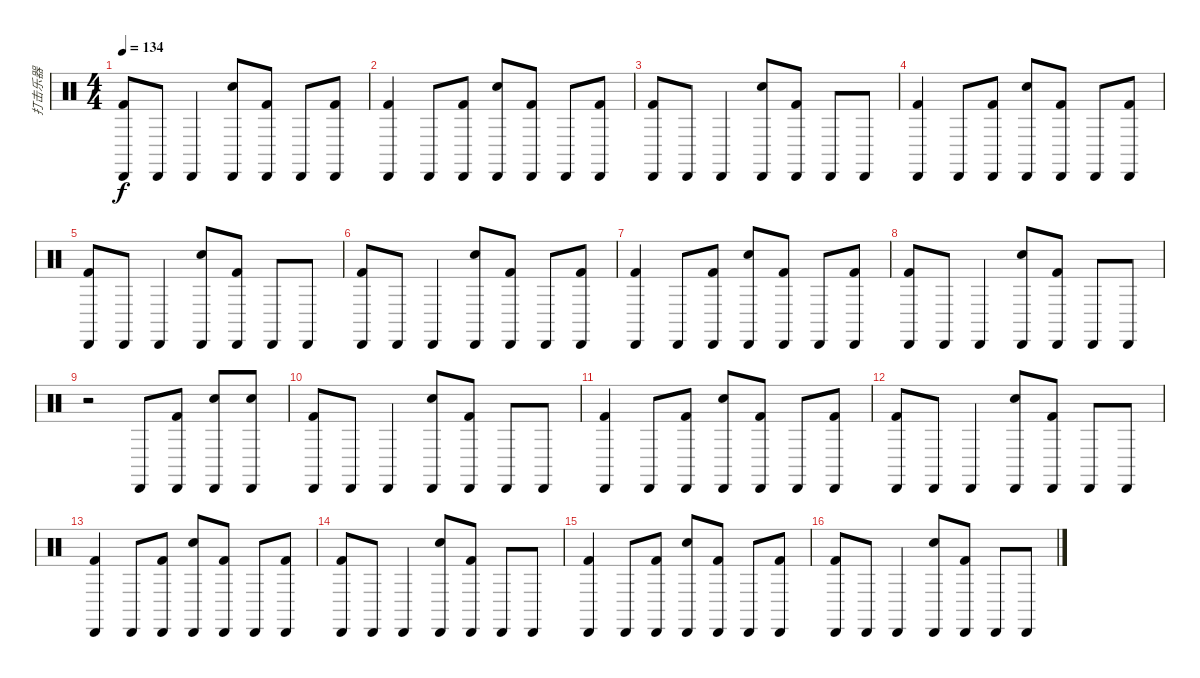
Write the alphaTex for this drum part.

\track ("打击乐器" "打击乐器") {instrument percussion}
\staff {score}
\articulation defaults
\ts (4 4)
\tempo 134
\clef neutral
\ks c
("Cabasa (hit)" "Kick (hit) 2").8{dy f} "Cabasa (hit)".8 "Cabasa (hit)".4 ("Snare (hit) 2" "Cabasa (hit)").8 ("Cabasa (hit)" "Kick (hit) 2").8 "Cabasa (hit)".8 ("Cabasa (hit)" "Kick (hit) 2").8 |
("Cabasa (hit)" "Kick (hit) 2").4 "Cabasa (hit)".8 ("Cabasa (hit)" "Kick (hit) 2").8 ("Snare (hit) 2" "Cabasa (hit)").8 ("Cabasa (hit)" "Kick (hit) 2").8 "Cabasa (hit)".8 ("Cabasa (hit)" "Kick (hit) 2").8 |
("Cabasa (hit)" "Kick (hit) 2").8 "Cabasa (hit)".8 "Cabasa (hit)".4 ("Snare (hit) 2" "Cabasa (hit)").8 ("Cabasa (hit)" "Kick (hit) 2").8 "Cabasa (hit)".8 "Cabasa (hit)".8 |
("Cabasa (hit)" "Kick (hit) 2").4 "Cabasa (hit)".8 ("Cabasa (hit)" "Kick (hit) 2").8 ("Snare (hit) 2" "Cabasa (hit)").8 ("Cabasa (hit)" "Kick (hit) 2").8 "Cabasa (hit)".8 ("Cabasa (hit)" "Kick (hit) 2").8 |
("Cabasa (hit)" "Kick (hit) 2").8 "Cabasa (hit)".8 "Cabasa (hit)".4 ("Snare (hit) 2" "Cabasa (hit)").8 ("Cabasa (hit)" "Kick (hit) 2").8 "Cabasa (hit)".8 "Cabasa (hit)".8 |
("Cabasa (hit)" "Kick (hit) 2").8 "Cabasa (hit)".8 "Cabasa (hit)".4 ("Snare (hit) 2" "Cabasa (hit)").8 ("Cabasa (hit)" "Kick (hit) 2").8 "Cabasa (hit)".8 ("Cabasa (hit)" "Kick (hit) 2").8 |
("Cabasa (hit)" "Kick (hit) 2").4 "Cabasa (hit)".8 ("Cabasa (hit)" "Kick (hit) 2").8 ("Snare (hit) 2" "Cabasa (hit)").8 ("Cabasa (hit)" "Kick (hit) 2").8 "Cabasa (hit)".8 ("Cabasa (hit)" "Kick (hit) 2").8 |
("Cabasa (hit)" "Kick (hit) 2").8 "Cabasa (hit)".8 "Cabasa (hit)".4 ("Snare (hit) 2" "Cabasa (hit)").8 ("Cabasa (hit)" "Kick (hit) 2").8 "Cabasa (hit)".8 "Cabasa (hit)".8 |
r.2 "Cabasa (hit)".8 ("Cabasa (hit)" "Kick (hit) 2").8 ("Snare (hit) 2" "Cabasa (hit)").8 ("Snare (hit) 2" "Cabasa (hit)").8 |
("Cabasa (hit)" "Kick (hit) 2").8 "Cabasa (hit)".8 "Cabasa (hit)".4 ("Snare (hit) 2" "Cabasa (hit)").8 ("Cabasa (hit)" "Kick (hit) 2").8 "Cabasa (hit)".8 "Cabasa (hit)".8 |
("Cabasa (hit)" "Kick (hit) 2").4 "Cabasa (hit)".8 ("Cabasa (hit)" "Kick (hit) 2").8 ("Snare (hit) 2" "Cabasa (hit)").8 ("Cabasa (hit)" "Kick (hit) 2").8 "Cabasa (hit)".8 ("Cabasa (hit)" "Kick (hit) 2").8 |
("Cabasa (hit)" "Kick (hit) 2").8 "Cabasa (hit)".8 "Cabasa (hit)".4 ("Snare (hit) 2" "Cabasa (hit)").8 ("Cabasa (hit)" "Kick (hit) 2").8 "Cabasa (hit)".8 "Cabasa (hit)".8 |
("Cabasa (hit)" "Kick (hit) 2").4 "Cabasa (hit)".8 ("Cabasa (hit)" "Kick (hit) 2").8 ("Snare (hit) 2" "Cabasa (hit)").8 ("Cabasa (hit)" "Kick (hit) 2").8 "Cabasa (hit)".8 ("Cabasa (hit)" "Kick (hit) 2").8 |
("Cabasa (hit)" "Kick (hit) 2").8 "Cabasa (hit)".8 "Cabasa (hit)".4 ("Snare (hit) 2" "Cabasa (hit)").8 ("Cabasa (hit)" "Kick (hit) 2").8 "Cabasa (hit)".8 "Cabasa (hit)".8 |
("Cabasa (hit)" "Kick (hit) 2").4 "Cabasa (hit)".8 ("Cabasa (hit)" "Kick (hit) 2").8 ("Snare (hit) 2" "Cabasa (hit)").8 ("Cabasa (hit)" "Kick (hit) 2").8 "Cabasa (hit)".8 ("Cabasa (hit)" "Kick (hit) 2").8 |
("Cabasa (hit)" "Kick (hit) 2").8 "Cabasa (hit)".8 "Cabasa (hit)".4 ("Snare (hit) 2" "Cabasa (hit)").8 ("Cabasa (hit)" "Kick (hit) 2").8 "Cabasa (hit)".8 "Cabasa (hit)".8
